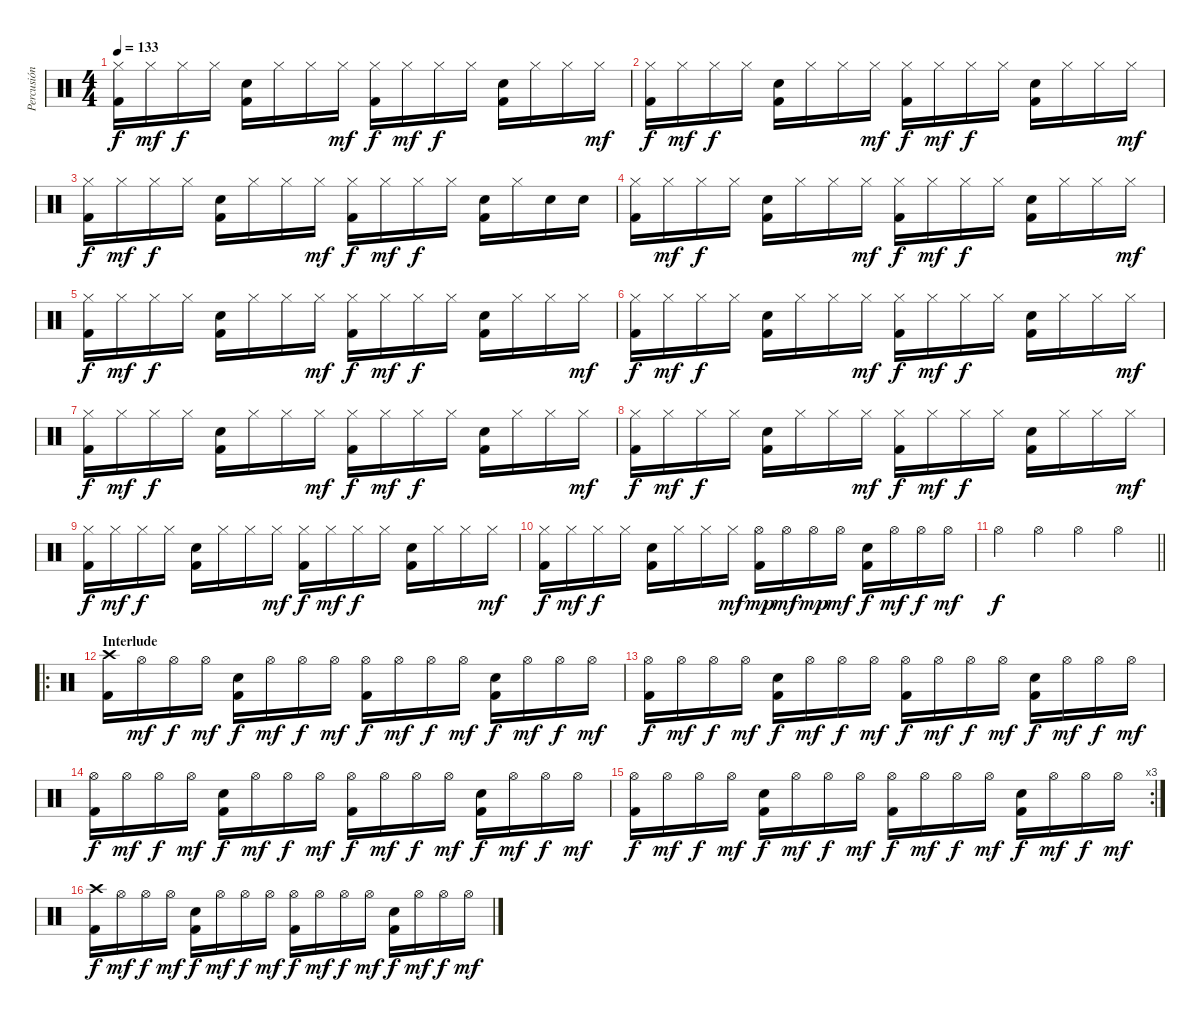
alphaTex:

\track ("Percusión" "Percusión") {instrument percussion}
\staff {score}
\articulation defaults
\ts (4 4)
\tempo 133
\clef neutral
\ks c
("Hi-Hat (closed)" "Kick (hit) 2").16{dy f} "Hi-Hat (closed)".16{dy mf} "Hi-Hat (closed)".16{dy f} "Hi-Hat (closed)".16 ("Snare (hit) 2" "Kick (hit) 2").16 "Hi-Hat (closed)".16 "Hi-Hat (closed)".16 "Hi-Hat (closed)".16{dy mf} ("Hi-Hat (closed)" "Kick (hit) 2").16{dy f} "Hi-Hat (closed)".16{dy mf} "Hi-Hat (closed)".16{dy f} "Hi-Hat (closed)".16 ("Snare (hit) 2" "Kick (hit) 2").16 "Hi-Hat (closed)".16 "Hi-Hat (closed)".16 "Hi-Hat (closed)".16{dy mf} |
("Hi-Hat (closed)" "Kick (hit) 2").16{dy f} "Hi-Hat (closed)".16{dy mf} "Hi-Hat (closed)".16{dy f} "Hi-Hat (closed)".16 ("Snare (hit) 2" "Kick (hit) 2").16 "Hi-Hat (closed)".16 "Hi-Hat (closed)".16 "Hi-Hat (closed)".16{dy mf} ("Hi-Hat (closed)" "Kick (hit) 2").16{dy f} "Hi-Hat (closed)".16{dy mf} "Hi-Hat (closed)".16{dy f} "Hi-Hat (closed)".16 ("Snare (hit) 2" "Kick (hit) 2").16 "Hi-Hat (closed)".16 "Hi-Hat (closed)".16 "Hi-Hat (closed)".16{dy mf} |
("Hi-Hat (closed)" "Kick (hit) 2").16{dy f} "Hi-Hat (closed)".16{dy mf} "Hi-Hat (closed)".16{dy f} "Hi-Hat (closed)".16 ("Snare (hit) 2" "Kick (hit) 2").16 "Hi-Hat (closed)".16 "Hi-Hat (closed)".16 "Hi-Hat (closed)".16{dy mf} ("Hi-Hat (closed)" "Kick (hit) 2").16{dy f} "Hi-Hat (closed)".16{dy mf} "Hi-Hat (closed)".16{dy f} "Hi-Hat (closed)".16 ("Snare (hit) 2" "Kick (hit) 2").16 "Hi-Hat (closed)".16 "Snare (hit) 2".16 "Snare (hit) 2".16 |
("Hi-Hat (closed)" "Kick (hit) 2").16 "Hi-Hat (closed)".16{dy mf} "Hi-Hat (closed)".16{dy f} "Hi-Hat (closed)".16 ("Snare (hit) 2" "Kick (hit) 2").16 "Hi-Hat (closed)".16 "Hi-Hat (closed)".16 "Hi-Hat (closed)".16{dy mf} ("Hi-Hat (closed)" "Kick (hit) 2").16{dy f} "Hi-Hat (closed)".16{dy mf} "Hi-Hat (closed)".16{dy f} "Hi-Hat (closed)".16 ("Snare (hit) 2" "Kick (hit) 2").16 "Hi-Hat (closed)".16 "Hi-Hat (closed)".16 "Hi-Hat (closed)".16{dy mf} |
("Hi-Hat (closed)" "Kick (hit) 2").16{dy f} "Hi-Hat (closed)".16{dy mf} "Hi-Hat (closed)".16{dy f} "Hi-Hat (closed)".16 ("Snare (hit) 2" "Kick (hit) 2").16 "Hi-Hat (closed)".16 "Hi-Hat (closed)".16 "Hi-Hat (closed)".16{dy mf} ("Hi-Hat (closed)" "Kick (hit) 2").16{dy f} "Hi-Hat (closed)".16{dy mf} "Hi-Hat (closed)".16{dy f} "Hi-Hat (closed)".16 ("Snare (hit) 2" "Kick (hit) 2").16 "Hi-Hat (closed)".16 "Hi-Hat (closed)".16 "Hi-Hat (closed)".16{dy mf} |
("Hi-Hat (closed)" "Kick (hit) 2").16{dy f} "Hi-Hat (closed)".16{dy mf} "Hi-Hat (closed)".16{dy f} "Hi-Hat (closed)".16 ("Snare (hit) 2" "Kick (hit) 2").16 "Hi-Hat (closed)".16 "Hi-Hat (closed)".16 "Hi-Hat (closed)".16{dy mf} ("Hi-Hat (closed)" "Kick (hit) 2").16{dy f} "Hi-Hat (closed)".16{dy mf} "Hi-Hat (closed)".16{dy f} "Hi-Hat (closed)".16 ("Snare (hit) 2" "Kick (hit) 2").16 "Hi-Hat (closed)".16 "Hi-Hat (closed)".16 "Hi-Hat (closed)".16{dy mf} |
("Hi-Hat (closed)" "Kick (hit) 2").16{dy f} "Hi-Hat (closed)".16{dy mf} "Hi-Hat (closed)".16{dy f} "Hi-Hat (closed)".16 ("Snare (hit) 2" "Kick (hit) 2").16 "Hi-Hat (closed)".16 "Hi-Hat (closed)".16 "Hi-Hat (closed)".16{dy mf} ("Hi-Hat (closed)" "Kick (hit) 2").16{dy f} "Hi-Hat (closed)".16{dy mf} "Hi-Hat (closed)".16{dy f} "Hi-Hat (closed)".16 ("Snare (hit) 2" "Kick (hit) 2").16 "Hi-Hat (closed)".16 "Hi-Hat (closed)".16 "Hi-Hat (closed)".16{dy mf} |
("Hi-Hat (closed)" "Kick (hit) 2").16{dy f} "Hi-Hat (closed)".16{dy mf} "Hi-Hat (closed)".16{dy f} "Hi-Hat (closed)".16 ("Snare (hit) 2" "Kick (hit) 2").16 "Hi-Hat (closed)".16 "Hi-Hat (closed)".16 "Hi-Hat (closed)".16{dy mf} ("Hi-Hat (closed)" "Kick (hit) 2").16{dy f} "Hi-Hat (closed)".16{dy mf} "Hi-Hat (closed)".16{dy f} "Hi-Hat (closed)".16 ("Snare (hit) 2" "Kick (hit) 2").16 "Hi-Hat (closed)".16 "Hi-Hat (closed)".16 "Hi-Hat (closed)".16{dy mf} |
("Hi-Hat (closed)" "Kick (hit) 2").16{dy f} "Hi-Hat (closed)".16{dy mf} "Hi-Hat (closed)".16{dy f} "Hi-Hat (closed)".16 ("Snare (hit) 2" "Kick (hit) 2").16 "Hi-Hat (closed)".16 "Hi-Hat (closed)".16 "Hi-Hat (closed)".16{dy mf} ("Hi-Hat (closed)" "Kick (hit) 2").16{dy f} "Hi-Hat (closed)".16{dy mf} "Hi-Hat (closed)".16{dy f} "Hi-Hat (closed)".16 ("Snare (hit) 2" "Kick (hit) 2").16 "Hi-Hat (closed)".16 "Hi-Hat (closed)".16 "Hi-Hat (closed)".16{dy mf} |
("Hi-Hat (closed)" "Kick (hit) 2").16{dy f} "Hi-Hat (closed)".16{dy mf} "Hi-Hat (closed)".16{dy f} "Hi-Hat (closed)".16 ("Snare (hit) 2" "Kick (hit) 2").16 "Hi-Hat (closed)".16 "Hi-Hat (closed)".16 "Hi-Hat (closed)".16{dy mf} ("Hi-Hat (open)" "Kick (hit) 2").16{dy mp} "Hi-Hat (open)".16{dy mf} "Hi-Hat (open)".16{dy mp} "Hi-Hat (open)".16{dy mf} ("Snare (hit) 2" "Kick (hit) 2").16{dy f} "Hi-Hat (open)".16{dy mf} "Hi-Hat (open)".16{dy f} "Hi-Hat (open)".16{dy mf} |
\barLineRight lightlight "Hi-Hat (open)".4{dy f} "Hi-Hat (open)".4 "Hi-Hat (open)".4 "Hi-Hat (open)".4
|
\ro
\section ("" "Interlude ")
("Crash high (hit)" "Kick (hit) 2").16 "Hi-Hat (open)".16{dy mf} "Hi-Hat (open)".16{dy f} "Hi-Hat (open)".16{dy mf} ("Snare (hit) 2" "Kick (hit) 2").16{dy f} "Hi-Hat (open)".16{dy mf} "Hi-Hat (open)".16{dy f} "Hi-Hat (open)".16{dy mf} ("Hi-Hat (open)" "Kick (hit) 2").16{dy f} "Hi-Hat (open)".16{dy mf} "Hi-Hat (open)".16{dy f} "Hi-Hat (open)".16{dy mf} ("Snare (hit) 2" "Kick (hit) 2").16{dy f} "Hi-Hat (open)".16{dy mf} "Hi-Hat (open)".16{dy f} "Hi-Hat (open)".16{dy mf} |
("Hi-Hat (open)" "Kick (hit) 2").16{dy f} "Hi-Hat (open)".16{dy mf} "Hi-Hat (open)".16{dy f} "Hi-Hat (open)".16{dy mf} ("Snare (hit) 2" "Kick (hit) 2").16{dy f} "Hi-Hat (open)".16{dy mf} "Hi-Hat (open)".16{dy f} "Hi-Hat (open)".16{dy mf} ("Hi-Hat (open)" "Kick (hit) 2").16{dy f} "Hi-Hat (open)".16{dy mf} "Hi-Hat (open)".16{dy f} "Hi-Hat (open)".16{dy mf} ("Snare (hit) 2" "Kick (hit) 2").16{dy f} "Hi-Hat (open)".16{dy mf} "Hi-Hat (open)".16{dy f} "Hi-Hat (open)".16{dy mf} |
("Hi-Hat (open)" "Kick (hit) 2").16{dy f} "Hi-Hat (open)".16{dy mf} "Hi-Hat (open)".16{dy f} "Hi-Hat (open)".16{dy mf} ("Snare (hit) 2" "Kick (hit) 2").16{dy f} "Hi-Hat (open)".16{dy mf} "Hi-Hat (open)".16{dy f} "Hi-Hat (open)".16{dy mf} ("Hi-Hat (open)" "Kick (hit) 2").16{dy f} "Hi-Hat (open)".16{dy mf} "Hi-Hat (open)".16{dy f} "Hi-Hat (open)".16{dy mf} ("Snare (hit) 2" "Kick (hit) 2").16{dy f} "Hi-Hat (open)".16{dy mf} "Hi-Hat (open)".16{dy f} "Hi-Hat (open)".16{dy mf} |
\rc 3
("Hi-Hat (open)" "Kick (hit) 2").16{dy f} "Hi-Hat (open)".16{dy mf} "Hi-Hat (open)".16{dy f} "Hi-Hat (open)".16{dy mf} ("Snare (hit) 2" "Kick (hit) 2").16{dy f} "Hi-Hat (open)".16{dy mf} "Hi-Hat (open)".16{dy f} "Hi-Hat (open)".16{dy mf} ("Hi-Hat (open)" "Kick (hit) 2").16{dy f} "Hi-Hat (open)".16{dy mf} "Hi-Hat (open)".16{dy f} "Hi-Hat (open)".16{dy mf} ("Snare (hit) 2" "Kick (hit) 2").16{dy f} "Hi-Hat (open)".16{dy mf} "Hi-Hat (open)".16{dy f} "Hi-Hat (open)".16{dy mf} |
("Crash high (hit)" "Kick (hit) 2").16{dy f} "Hi-Hat (open)".16{dy mf} "Hi-Hat (open)".16{dy f} "Hi-Hat (open)".16{dy mf} ("Snare (hit) 2" "Kick (hit) 2").16{dy f} "Hi-Hat (open)".16{dy mf} "Hi-Hat (open)".16{dy f} "Hi-Hat (open)".16{dy mf} ("Hi-Hat (open)" "Kick (hit) 2").16{dy f} "Hi-Hat (open)".16{dy mf} "Hi-Hat (open)".16{dy f} "Hi-Hat (open)".16{dy mf} ("Snare (hit) 2" "Kick (hit) 2").16{dy f} "Hi-Hat (open)".16{dy mf} "Hi-Hat (open)".16{dy f} "Hi-Hat (open)".16{dy mf}
